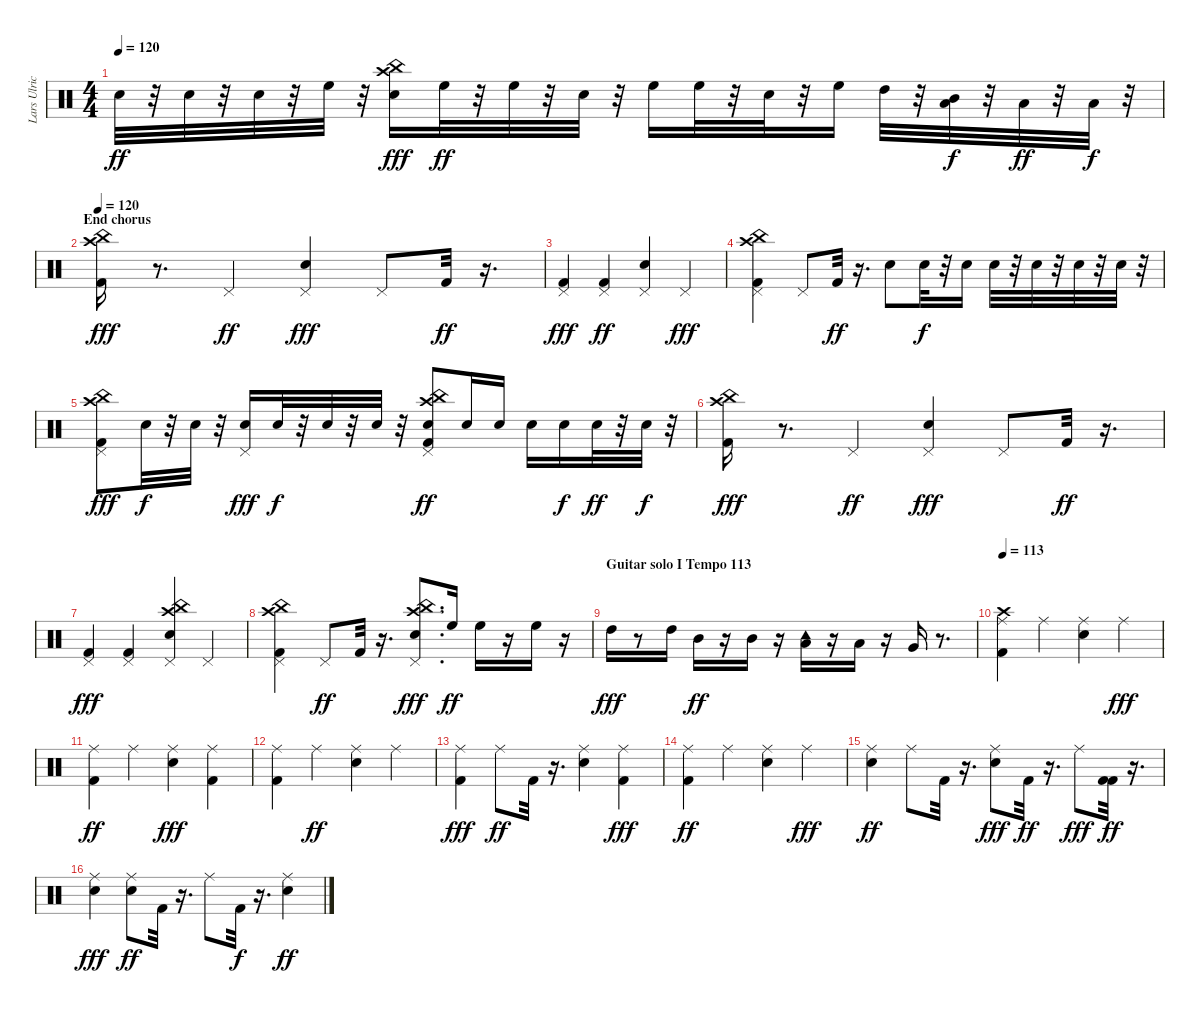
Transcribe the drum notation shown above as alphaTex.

\track ("Lars Ulrich" "Lars Ulric") {instrument percussion}
\staff {score}
\articulation defaults
\ts (4 4)
\tempo 120
\clef neutral
\ks c "Snare (hit) 2".32{dy ff}
r.32 "Snare (hit) 2".32 r.32 "Snare (hit) 2".32 r.32 "High Floor Tom (hit)".32 r.32 ("Snare (hit) 2" "China (hit)" "Crash high (hit)").16{dy fff} "High Floor Tom (hit)".32{dy ff} r.32 "High Floor Tom (hit)".32 r.32 "Snare (hit) 2".32 r.32 "High Floor Tom (hit)".16 "High Floor Tom (hit)".32 r.32 "Snare (hit) 2".32 r.32 "High Floor Tom (hit)".16 "High Tom (hit)".32 r.32 ("Low Tom (hit)" "Mid Tom (hit)").32{dy f} r.32 "Low Tom (hit)".32{dy ff} r.32 "Low Floor Tom (hit)".32{dy f} r.32 |
\section ("" "End chorus")
\tempo 120
("China (hit)" "Crash high (hit)" "Kick (hit) 2").16{dy fff} r.8{d} "Pedal Hi-Hat (hit)".4{dy ff} ("Snare (hit) 2" "Pedal Hi-Hat (hit)").4{dy fff} "Pedal Hi-Hat (hit)".8 "Kick (hit) 2".32{dy ff} r.16{d} |
("Kick (hit) 2" "Pedal Hi-Hat (hit)").4{dy fff} ("Kick (hit) 2" "Pedal Hi-Hat (hit)").4{dy ff} ("Snare (hit) 2" "Pedal Hi-Hat (hit)").4 "Pedal Hi-Hat (hit)".4{dy fff} |
("Crash high (hit)" "China (hit)" "Kick (hit) 2" "Pedal Hi-Hat (hit)").4 "Pedal Hi-Hat (hit)".8 "Kick (hit) 2".32{dy ff} r.16{d} "Snare (hit) 2".8 "Snare (hit) 2".32{dy f} r.32 "Snare (hit) 2".16 "Snare (hit) 2".32 r.32 "Snare (hit) 2".32 r.32 "Snare (hit) 2".32 r.32 "Snare (hit) 2".32 r.32 |
("Crash high (hit)" "China (hit)" "Kick (hit) 2" "Pedal Hi-Hat (hit)").8{dy fff} "Snare (hit) 2".32{dy f} r.32 "Snare (hit) 2".32 r.32 ("Snare (hit) 2" "Pedal Hi-Hat (hit)").16{dy fff} "Snare (hit) 2".32{dy f} r.32 "Snare (hit) 2".32 r.32 "Snare (hit) 2".32 r.32 ("China (hit)" "Crash high (hit)" "Kick (hit) 2" "Snare (hit) 2" "Pedal Hi-Hat (hit)").8{dy ff} "Snare (hit) 2".16 "Snare (hit) 2".16 "Snare (hit) 2".16 "Snare (hit) 2".16{dy f} "Snare (hit) 2".32{dy ff} r.32 "Snare (hit) 2".32{dy f} r.32 |
("China (hit)" "Crash high (hit)" "Kick (hit) 2").16{dy fff} r.8{d} "Pedal Hi-Hat (hit)".4{dy ff} ("Snare (hit) 2" "Pedal Hi-Hat (hit)").4{dy fff} "Pedal Hi-Hat (hit)".8 "Kick (hit) 2".32{dy ff} r.16{d} |
("Kick (hit) 2" "Pedal Hi-Hat (hit)").4{dy fff} ("Kick (hit) 2" "Pedal Hi-Hat (hit)").4 ("China (hit)" "Crash high (hit)" "Snare (hit) 2" "Pedal Hi-Hat (hit)").4 "Pedal Hi-Hat (hit)".4 |
("Crash high (hit)" "China (hit)" "Kick (hit) 2" "Pedal Hi-Hat (hit)").4 "Pedal Hi-Hat (hit)".8{dy ff} "Kick (hit) 2".32 r.16{d} ("China (hit)" "Crash high (hit)" "Snare (hit) 2" "Pedal Hi-Hat (hit)").8{d dy fff} "High Floor Tom (hit)".16{dy ff} "High Floor Tom (hit)".16 r.16 "High Floor Tom (hit)".16 r.16 |
\section ("" "Guitar solo I Tempo 113")
"High Tom (hit)".16{dy fff} r.8 "High Tom (hit)".16 "Mid Tom (hit)".16{dy ff} r.16 "Mid Tom (hit)".16 r.16 ("Tambourine (hit)" "Low Tom (hit)").16 r.16 "Low Tom (hit)".16 r.16 "Very Low Tom (hit)".16 r.8{d} |
\tempo 113
("Kick (hit) 2" "Crash high (hit)" "Ride (middle)").4 "Ride (middle)".4 ("Ride (middle)" "Snare (hit) 2").4 "Ride (middle)".4{dy fff} |
("Kick (hit) 2" "Ride (middle)").4{dy ff} "Ride (middle)".4 ("Snare (hit) 2" "Ride (middle)").4{dy fff} ("Kick (hit) 2" "Ride (middle)").4 |
("Kick (hit) 2" "Ride (middle)").4 "Ride (middle)".4{dy ff} ("Ride (middle)" "Snare (hit) 2").4 "Ride (middle)".4 |
("Kick (hit) 2" "Ride (middle)").4{dy fff} "Ride (middle)".8{dy ff} "Kick (hit) 2".32 r.16{d} ("Snare (hit) 2" "Ride (middle)").4 ("Kick (hit) 2" "Ride (middle)").4{dy fff} |
("Kick (hit) 2" "Ride (middle)").4{dy ff} "Ride (middle)".4 ("Ride (middle)" "Snare (hit) 2").4 "Ride (middle)".4{dy fff} |
("Snare (hit) 2" "Ride (middle)").4{dy ff} "Ride (middle)".8 "Kick (hit) 2".32 r.16{d} ("Snare (hit) 2" "Ride (middle)").8{dy fff} "Kick (hit) 2".32{dy ff} r.16{d} "Ride (middle)".8{dy fff} ("Kick (hit) 2" "Kick (hit) 2").32{dy ff} r.16{d} |
("Snare (hit) 2" "Ride (middle)").4{dy fff} ("Snare (hit) 2" "Ride (middle)").8{dy ff} "Kick (hit) 2".32 r.16{d} "Ride (middle)".8 "Kick (hit) 2".32{dy f} r.16{d} ("Snare (hit) 2" "Ride (middle)").4{dy ff}
